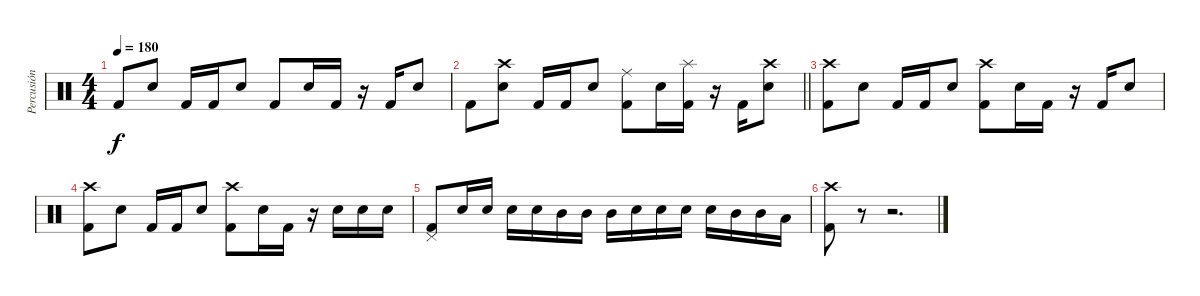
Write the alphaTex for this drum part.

\track ("Percusión" "Percusión") {instrument percussion}
\staff {score}
\articulation defaults
\ts (4 4)
\tempo 180
\clef neutral
\ks c "Kick (hit) 2".8{dy f} "Snare (hit) 2".8 "Kick (hit) 2".16 "Kick (hit) 2".16 "Snare (hit) 2".8 "Kick (hit) 2".8 "Snare (hit) 2".16 "Kick (hit) 2".16
r.16 "Kick (hit) 2".16 "Snare (hit) 2".8 |
\barLineRight lightlight "Kick (hit) 2".8
("Snare (hit) 2" "Crash high (hit)").8 "Kick (hit) 2".16 "Kick (hit) 2".16 "Snare (hit) 2".8 ("Ride (middle)" "Kick (hit) 2").8 "Snare (hit) 2".16 ("Splash (hit)" "Kick (hit) 2").16 r.16 "Kick (hit) 2".16 ("Snare (hit) 2" "Crash high (hit)").8 |
("Crash high (hit)" "Kick (hit) 2").8 "Snare (hit) 2".8 "Kick (hit) 2".16 "Kick (hit) 2".16 "Snare (hit) 2".8 ("Crash high (hit)" "Kick (hit) 2").8 "Snare (hit) 2".16 "Kick (hit) 2".16 r.16 "Kick (hit) 2".16 "Snare (hit) 2".8 |
("Crash high (hit)" "Kick (hit) 2").8 "Snare (hit) 2".8 "Kick (hit) 2".16 "Kick (hit) 2".16 "Snare (hit) 2".8 ("Crash high (hit)" "Kick (hit) 2").8 "Snare (hit) 2".16 "Kick (hit) 2".16 r.16 "Snare (hit) 2".16 "Snare (hit) 2".16 "Snare (hit) 2".16 |
("Pedal Hi-Hat (hit)" "Kick (hit) 2").8 "Snare (hit) 2".16 "Snare (hit) 2".16 "Snare (hit) 2".16 "Snare (hit) 2".16 "Mid Tom (hit)".16 "Mid Tom (hit)".16 "Mid Tom (hit)".16 "Snare (hit) 2".16 "Snare (hit) 2".16 "Snare (hit) 2".16 "Snare (hit) 2".16 "Mid Tom (hit)".16 "Mid Tom (hit)".16 "Low Tom (hit)".16 |
("Crash high (hit)" "Kick (hit) 2").8 r.8 r.2{d}
